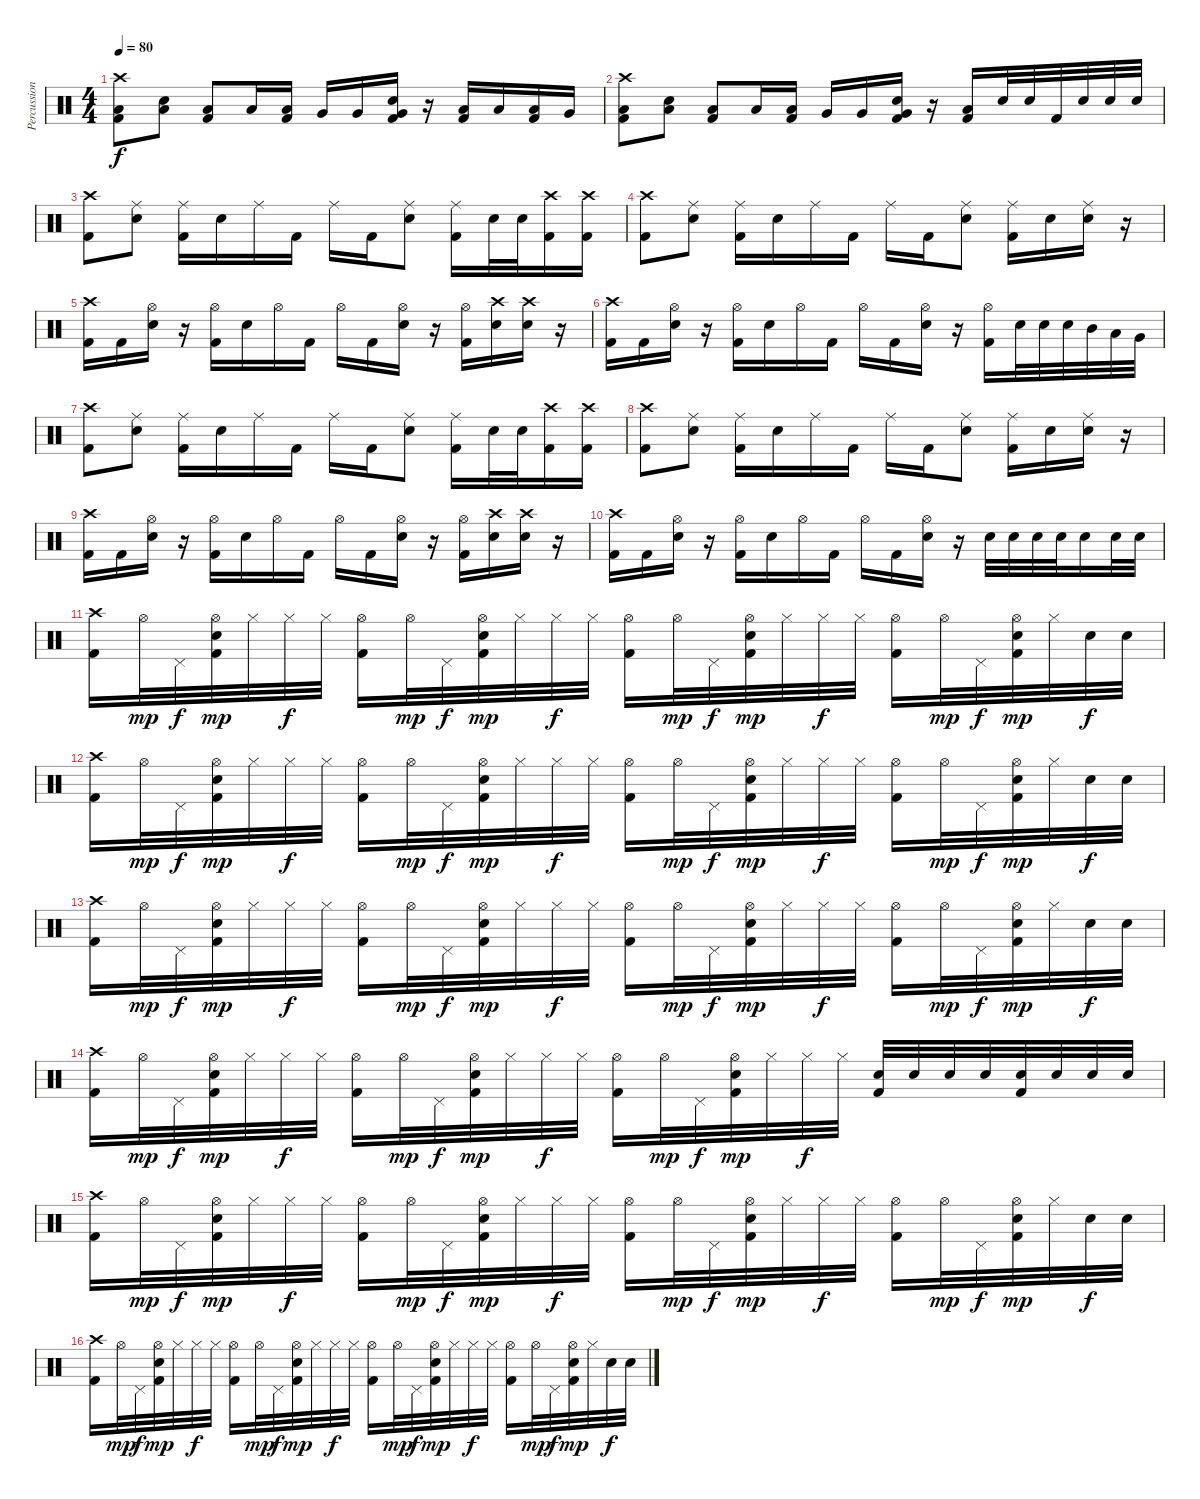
\track ("Percussion" "Percussion") {instrument percussion}
\staff {score}
\articulation defaults
\ts (4 4)
\tempo 80
\clef neutral
\ks c
("Kick (hit) 2" "Low Floor Tom (hit)" "Crash high (hit)").8{dy f} ("Electric Snare (hit)" "Low Floor Tom (hit)").8 ("Kick (hit) 2" "Low Floor Tom (hit)").8 "Low Tom (hit)".16 ("Low Floor Tom (hit)" "Kick (hit) 2").16 "Very Low Tom (hit)".16 "Very Low Tom (hit)".16 ("Electric Snare (hit)" "Kick (hit) 2" "Very Low Tom (hit)").16 r.16 ("Kick (hit) 2" "Low Floor Tom (hit)").16 "Low Tom (hit)".16 ("Kick (hit) 2" "Low Floor Tom (hit)").16 "Very Low Tom (hit)".16 |
("Kick (hit) 2" "Low Floor Tom (hit)" "Crash high (hit)").8 ("Electric Snare (hit)" "Low Floor Tom (hit)").8 ("Kick (hit) 2" "Low Floor Tom (hit)").8 "Low Tom (hit)".16 ("Low Floor Tom (hit)" "Kick (hit) 2").16 "Very Low Tom (hit)".16 "Very Low Tom (hit)".16 ("Electric Snare (hit)" "Kick (hit) 2" "Very Low Tom (hit)").16 r.16 ("Kick (hit) 2" "Low Floor Tom (hit)").16 "Electric Snare (hit)".32 "Electric Snare (hit)".32 "Kick (hit) 2".32 "Electric Snare (hit)".32 "Electric Snare (hit)".32 "Electric Snare (hit)".32 |
("Crash high (hit)" "Kick (hit) 2").8 ("Electric Snare (hit)" "Ride (middle)").8 ("Kick (hit) 2" "Ride (middle)").16 "Electric Snare (hit)".16 "Ride (middle)".16 "Kick (hit) 2".16 "Ride (middle)".16 "Kick (hit) 2".16 ("Electric Snare (hit)" "Ride (middle)").8 ("Kick (hit) 2" "Ride (middle)").16 "Electric Snare (hit)".32 "Electric Snare (hit)".32 ("Kick (hit) 2" "Crash high (hit)").16 ("Kick (hit) 2" "Crash high (hit)").16 |
("Crash high (hit)" "Kick (hit) 2").8 ("Electric Snare (hit)" "Ride (middle)").8 ("Kick (hit) 2" "Ride (middle)").16 "Electric Snare (hit)".16 "Ride (middle)".16 "Kick (hit) 2".16 "Ride (middle)".16 "Kick (hit) 2".16 ("Electric Snare (hit)" "Ride (middle)").8 ("Kick (hit) 2" "Ride (middle)").16 "Electric Snare (hit)".16 ("Electric Snare (hit)" "Ride (middle)").16 r.16 |
("Kick (hit) 2" "Crash high (hit)").16 "Kick (hit) 2".16 ("Electric Snare (hit)" "Hi-Hat (open)").16 r.16 ("Kick (hit) 2" "Hi-Hat (open)").16 "Electric Snare (hit)".16 "Hi-Hat (open)".16 "Kick (hit) 2".16 "Hi-Hat (open)".16 "Kick (hit) 2".16 ("Electric Snare (hit)" "Hi-Hat (open)").16 r.16 ("Kick (hit) 2" "Hi-Hat (open)").16 ("Electric Snare (hit)" "Crash high (hit)").16 ("Electric Snare (hit)" "Crash high (hit)").16 r.16 |
("Kick (hit) 2" "Crash high (hit)").16 "Kick (hit) 2".16 ("Electric Snare (hit)" "Hi-Hat (open)").16 r.16 ("Kick (hit) 2" "Hi-Hat (open)").16 "Electric Snare (hit)".16 "Hi-Hat (open)".16 "Kick (hit) 2".16 "Hi-Hat (open)".16 "Kick (hit) 2".16 ("Electric Snare (hit)" "Hi-Hat (open)").16 r.16 ("Kick (hit) 2" "Hi-Hat (open)").16 "Electric Snare (hit)".32 "Electric Snare (hit)".32 "Electric Snare (hit)".32 "Mid Tom (hit)".32 "Low Tom (hit)".32 "Very Low Tom (hit)".32 |
("Crash high (hit)" "Kick (hit) 2").8 ("Electric Snare (hit)" "Ride (middle)").8 ("Kick (hit) 2" "Ride (middle)").16 "Electric Snare (hit)".16 "Ride (middle)".16 "Kick (hit) 2".16 "Ride (middle)".16 "Kick (hit) 2".16 ("Electric Snare (hit)" "Ride (middle)").8 ("Kick (hit) 2" "Ride (middle)").16 "Electric Snare (hit)".32 "Electric Snare (hit)".32 ("Kick (hit) 2" "Crash high (hit)").16 ("Kick (hit) 2" "Crash high (hit)").16 |
("Crash high (hit)" "Kick (hit) 2").8 ("Electric Snare (hit)" "Ride (middle)").8 ("Kick (hit) 2" "Ride (middle)").16 "Electric Snare (hit)".16 "Ride (middle)".16 "Kick (hit) 2".16 "Ride (middle)".16 "Kick (hit) 2".16 ("Electric Snare (hit)" "Ride (middle)").8 ("Kick (hit) 2" "Ride (middle)").16 "Electric Snare (hit)".16 ("Electric Snare (hit)" "Ride (middle)").16 r.16 |
("Kick (hit) 2" "Crash high (hit)").16 "Kick (hit) 2".16 ("Electric Snare (hit)" "Hi-Hat (open)").16 r.16 ("Kick (hit) 2" "Hi-Hat (open)").16 "Electric Snare (hit)".16 "Hi-Hat (open)".16 "Kick (hit) 2".16 "Hi-Hat (open)".16 "Kick (hit) 2".16 ("Electric Snare (hit)" "Hi-Hat (open)").16 r.16 ("Kick (hit) 2" "Hi-Hat (open)").16 ("Electric Snare (hit)" "Crash high (hit)").16 ("Electric Snare (hit)" "Crash high (hit)").16 r.16 |
("Kick (hit) 2" "Crash high (hit)").16 "Kick (hit) 2".16 ("Electric Snare (hit)" "Hi-Hat (open)").16 r.16 ("Kick (hit) 2" "Hi-Hat (open)").16 "Electric Snare (hit)".16 "Hi-Hat (open)".16 "Kick (hit) 2".16 "Hi-Hat (open)".16 "Kick (hit) 2".16 ("Electric Snare (hit)" "Hi-Hat (open)").16 r.16 "Electric Snare (hit)".32 "Electric Snare (hit)".32 "Electric Snare (hit)".32 "Electric Snare (hit)".32 "Electric Snare (hit)".16 "Electric Snare (hit)".32 "Electric Snare (hit)".32 |
("Kick (hit) 2" "Crash high (hit)").16 "Hi-Hat (open)".32{dy mp} "Pedal Hi-Hat (hit)".32{dy f} ("Hi-Hat (open)" "Electric Snare (hit)" "Kick (hit) 2").32{dy mp} "Hi-Hat (closed)".32 "Hi-Hat (closed)".32{dy f} "Hi-Hat (closed)".32 ("Kick (hit) 2" "Hi-Hat (open)").16 "Hi-Hat (open)".32{dy mp} "Pedal Hi-Hat (hit)".32{dy f} ("Hi-Hat (open)" "Electric Snare (hit)" "Kick (hit) 2").32{dy mp} "Hi-Hat (closed)".32 "Hi-Hat (closed)".32{dy f} "Hi-Hat (closed)".32 ("Kick (hit) 2" "Hi-Hat (open)").16 "Hi-Hat (open)".32{dy mp} "Pedal Hi-Hat (hit)".32{dy f} ("Hi-Hat (open)" "Electric Snare (hit)" "Kick (hit) 2").32{dy mp} "Hi-Hat (closed)".32 "Hi-Hat (closed)".32{dy f} "Hi-Hat (closed)".32 ("Kick (hit) 2" "Hi-Hat (open)").16 "Hi-Hat (open)".32{dy mp} "Pedal Hi-Hat (hit)".32{dy f} ("Hi-Hat (open)" "Electric Snare (hit)" "Kick (hit) 2").32{dy mp} "Hi-Hat (closed)".32 "Electric Snare (hit)".32{dy f} "Electric Snare (hit)".32 |
("Kick (hit) 2" "Crash high (hit)").16 "Hi-Hat (open)".32{dy mp} "Pedal Hi-Hat (hit)".32{dy f} ("Hi-Hat (open)" "Electric Snare (hit)" "Kick (hit) 2").32{dy mp} "Hi-Hat (closed)".32 "Hi-Hat (closed)".32{dy f} "Hi-Hat (closed)".32 ("Kick (hit) 2" "Hi-Hat (open)").16 "Hi-Hat (open)".32{dy mp} "Pedal Hi-Hat (hit)".32{dy f} ("Hi-Hat (open)" "Electric Snare (hit)" "Kick (hit) 2").32{dy mp} "Hi-Hat (closed)".32 "Hi-Hat (closed)".32{dy f} "Hi-Hat (closed)".32 ("Kick (hit) 2" "Hi-Hat (open)").16 "Hi-Hat (open)".32{dy mp} "Pedal Hi-Hat (hit)".32{dy f} ("Hi-Hat (open)" "Electric Snare (hit)" "Kick (hit) 2").32{dy mp} "Hi-Hat (closed)".32 "Hi-Hat (closed)".32{dy f} "Hi-Hat (closed)".32 ("Kick (hit) 2" "Hi-Hat (open)").16 "Hi-Hat (open)".32{dy mp} "Pedal Hi-Hat (hit)".32{dy f} ("Hi-Hat (open)" "Electric Snare (hit)" "Kick (hit) 2").32{dy mp} "Hi-Hat (closed)".32 "Electric Snare (hit)".32{dy f} "Electric Snare (hit)".32 |
("Kick (hit) 2" "Crash high (hit)").16 "Hi-Hat (open)".32{dy mp} "Pedal Hi-Hat (hit)".32{dy f} ("Hi-Hat (open)" "Electric Snare (hit)" "Kick (hit) 2").32{dy mp} "Hi-Hat (closed)".32 "Hi-Hat (closed)".32{dy f} "Hi-Hat (closed)".32 ("Kick (hit) 2" "Hi-Hat (open)").16 "Hi-Hat (open)".32{dy mp} "Pedal Hi-Hat (hit)".32{dy f} ("Hi-Hat (open)" "Electric Snare (hit)" "Kick (hit) 2").32{dy mp} "Hi-Hat (closed)".32 "Hi-Hat (closed)".32{dy f} "Hi-Hat (closed)".32 ("Kick (hit) 2" "Hi-Hat (open)").16 "Hi-Hat (open)".32{dy mp} "Pedal Hi-Hat (hit)".32{dy f} ("Hi-Hat (open)" "Electric Snare (hit)" "Kick (hit) 2").32{dy mp} "Hi-Hat (closed)".32 "Hi-Hat (closed)".32{dy f} "Hi-Hat (closed)".32 ("Kick (hit) 2" "Hi-Hat (open)").16 "Hi-Hat (open)".32{dy mp} "Pedal Hi-Hat (hit)".32{dy f} ("Hi-Hat (open)" "Electric Snare (hit)" "Kick (hit) 2").32{dy mp} "Hi-Hat (closed)".32 "Electric Snare (hit)".32{dy f} "Electric Snare (hit)".32 |
("Kick (hit) 2" "Crash high (hit)").16 "Hi-Hat (open)".32{dy mp} "Pedal Hi-Hat (hit)".32{dy f} ("Hi-Hat (open)" "Electric Snare (hit)" "Kick (hit) 2").32{dy mp} "Hi-Hat (closed)".32 "Hi-Hat (closed)".32{dy f} "Hi-Hat (closed)".32 ("Kick (hit) 2" "Hi-Hat (open)").16 "Hi-Hat (open)".32{dy mp} "Pedal Hi-Hat (hit)".32{dy f} ("Hi-Hat (open)" "Electric Snare (hit)" "Kick (hit) 2").32{dy mp} "Hi-Hat (closed)".32 "Hi-Hat (closed)".32{dy f} "Hi-Hat (closed)".32 ("Kick (hit) 2" "Hi-Hat (open)").16 "Hi-Hat (open)".32{dy mp} "Pedal Hi-Hat (hit)".32{dy f} ("Hi-Hat (open)" "Electric Snare (hit)" "Kick (hit) 2").32{dy mp} "Hi-Hat (closed)".32 "Hi-Hat (closed)".32{dy f} "Hi-Hat (closed)".32 ("Electric Snare (hit)" "Kick (hit) 2").32 "Electric Snare (hit)".32 "Electric Snare (hit)".32 "Electric Snare (hit)".32 ("Electric Snare (hit)" "Kick (hit) 2").32 "Electric Snare (hit)".32 "Electric Snare (hit)".32 "Electric Snare (hit)".32 |
("Kick (hit) 2" "Crash high (hit)").16 "Hi-Hat (open)".32{dy mp} "Pedal Hi-Hat (hit)".32{dy f} ("Hi-Hat (open)" "Electric Snare (hit)" "Kick (hit) 2").32{dy mp} "Hi-Hat (closed)".32 "Hi-Hat (closed)".32{dy f} "Hi-Hat (closed)".32 ("Kick (hit) 2" "Hi-Hat (open)").16 "Hi-Hat (open)".32{dy mp} "Pedal Hi-Hat (hit)".32{dy f} ("Hi-Hat (open)" "Electric Snare (hit)" "Kick (hit) 2").32{dy mp} "Hi-Hat (closed)".32 "Hi-Hat (closed)".32{dy f} "Hi-Hat (closed)".32 ("Kick (hit) 2" "Hi-Hat (open)").16 "Hi-Hat (open)".32{dy mp} "Pedal Hi-Hat (hit)".32{dy f} ("Hi-Hat (open)" "Electric Snare (hit)" "Kick (hit) 2").32{dy mp} "Hi-Hat (closed)".32 "Hi-Hat (closed)".32{dy f} "Hi-Hat (closed)".32 ("Kick (hit) 2" "Hi-Hat (open)").16 "Hi-Hat (open)".32{dy mp} "Pedal Hi-Hat (hit)".32{dy f} ("Hi-Hat (open)" "Electric Snare (hit)" "Kick (hit) 2").32{dy mp} "Hi-Hat (closed)".32 "Electric Snare (hit)".32{dy f} "Electric Snare (hit)".32 |
("Kick (hit) 2" "Crash high (hit)").16 "Hi-Hat (open)".32{dy mp} "Pedal Hi-Hat (hit)".32{dy f} ("Hi-Hat (open)" "Electric Snare (hit)" "Kick (hit) 2").32{dy mp} "Hi-Hat (closed)".32 "Hi-Hat (closed)".32{dy f} "Hi-Hat (closed)".32 ("Kick (hit) 2" "Hi-Hat (open)").16 "Hi-Hat (open)".32{dy mp} "Pedal Hi-Hat (hit)".32{dy f} ("Hi-Hat (open)" "Electric Snare (hit)" "Kick (hit) 2").32{dy mp} "Hi-Hat (closed)".32 "Hi-Hat (closed)".32{dy f} "Hi-Hat (closed)".32 ("Kick (hit) 2" "Hi-Hat (open)").16 "Hi-Hat (open)".32{dy mp} "Pedal Hi-Hat (hit)".32{dy f} ("Hi-Hat (open)" "Electric Snare (hit)" "Kick (hit) 2").32{dy mp} "Hi-Hat (closed)".32 "Hi-Hat (closed)".32{dy f} "Hi-Hat (closed)".32 ("Kick (hit) 2" "Hi-Hat (open)").16 "Hi-Hat (open)".32{dy mp} "Pedal Hi-Hat (hit)".32{dy f} ("Hi-Hat (open)" "Electric Snare (hit)" "Kick (hit) 2").32{dy mp} "Hi-Hat (closed)".32 "Electric Snare (hit)".32{dy f} "Electric Snare (hit)".32
